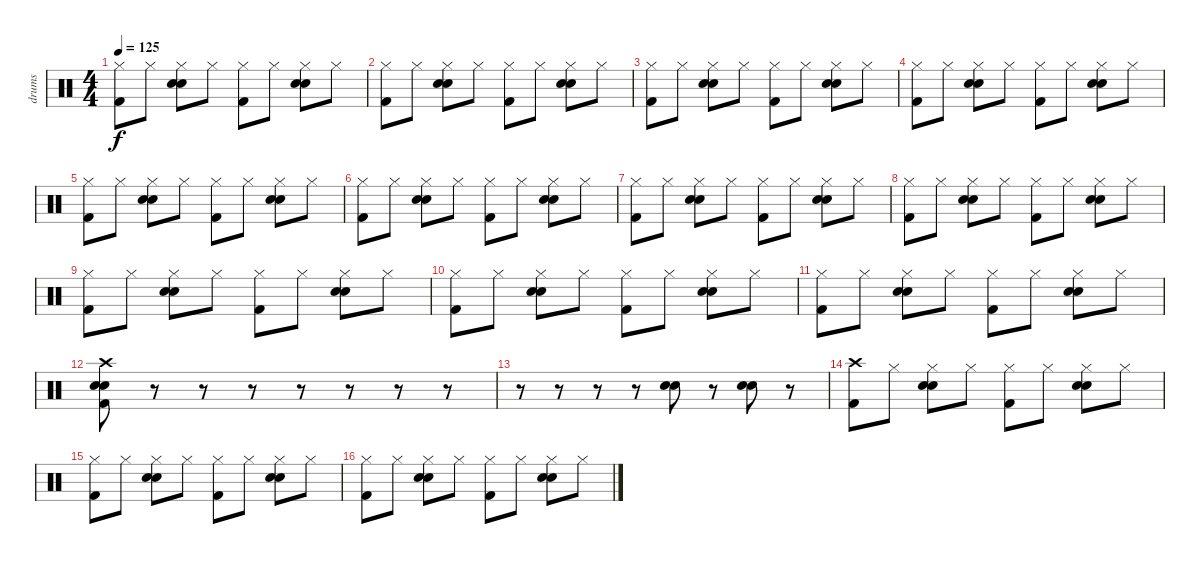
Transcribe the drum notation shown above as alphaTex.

\track ("drums" "drums") {instrument percussion}
\staff {score}
\articulation defaults
\ts (4 4)
\tempo 125
\clef neutral
\ks c
("Hi-Hat (closed)" "Kick (hit) 2").8{dy f} "Hi-Hat (closed)".8 ("Hi-Hat (closed)" "Snare (hit) 2" "Electric Snare (hit)").8 "Hi-Hat (closed)".8 ("Hi-Hat (closed)" "Kick (hit) 2").8 "Hi-Hat (closed)".8 ("Hi-Hat (closed)" "Snare (hit) 2" "Electric Snare (hit)").8 "Hi-Hat (closed)".8 |
("Hi-Hat (closed)" "Kick (hit) 2").8 "Hi-Hat (closed)".8 ("Hi-Hat (closed)" "Snare (hit) 2" "Electric Snare (hit)").8 "Hi-Hat (closed)".8 ("Hi-Hat (closed)" "Kick (hit) 2").8 "Hi-Hat (closed)".8 ("Hi-Hat (closed)" "Snare (hit) 2" "Electric Snare (hit)").8 "Hi-Hat (closed)".8 |
("Hi-Hat (closed)" "Kick (hit) 2").8 "Hi-Hat (closed)".8 ("Hi-Hat (closed)" "Snare (hit) 2" "Electric Snare (hit)").8 "Hi-Hat (closed)".8 ("Hi-Hat (closed)" "Kick (hit) 2").8 "Hi-Hat (closed)".8 ("Hi-Hat (closed)" "Snare (hit) 2" "Electric Snare (hit)").8 "Hi-Hat (closed)".8 |
("Hi-Hat (closed)" "Kick (hit) 2").8 "Hi-Hat (closed)".8 ("Hi-Hat (closed)" "Snare (hit) 2" "Electric Snare (hit)").8 "Hi-Hat (closed)".8 ("Hi-Hat (closed)" "Kick (hit) 2").8 "Hi-Hat (closed)".8 ("Hi-Hat (closed)" "Snare (hit) 2" "Electric Snare (hit)").8 "Hi-Hat (closed)".8 |
("Hi-Hat (closed)" "Kick (hit) 2").8 "Hi-Hat (closed)".8 ("Hi-Hat (closed)" "Snare (hit) 2" "Electric Snare (hit)").8 "Hi-Hat (closed)".8 ("Hi-Hat (closed)" "Kick (hit) 2").8 "Hi-Hat (closed)".8 ("Hi-Hat (closed)" "Snare (hit) 2" "Electric Snare (hit)").8 "Hi-Hat (closed)".8 |
("Hi-Hat (closed)" "Kick (hit) 2").8 "Hi-Hat (closed)".8 ("Hi-Hat (closed)" "Snare (hit) 2" "Electric Snare (hit)").8 "Hi-Hat (closed)".8 ("Hi-Hat (closed)" "Kick (hit) 2").8 "Hi-Hat (closed)".8 ("Hi-Hat (closed)" "Snare (hit) 2" "Electric Snare (hit)").8 "Hi-Hat (closed)".8 |
("Hi-Hat (closed)" "Kick (hit) 2").8 "Hi-Hat (closed)".8 ("Hi-Hat (closed)" "Snare (hit) 2" "Electric Snare (hit)").8 "Hi-Hat (closed)".8 ("Hi-Hat (closed)" "Kick (hit) 2").8 "Hi-Hat (closed)".8 ("Hi-Hat (closed)" "Snare (hit) 2" "Electric Snare (hit)").8 "Hi-Hat (closed)".8 |
("Hi-Hat (closed)" "Kick (hit) 2").8 "Hi-Hat (closed)".8 ("Hi-Hat (closed)" "Snare (hit) 2" "Electric Snare (hit)").8 "Hi-Hat (closed)".8 ("Hi-Hat (closed)" "Kick (hit) 2").8 "Hi-Hat (closed)".8 ("Hi-Hat (closed)" "Snare (hit) 2" "Electric Snare (hit)").8 "Hi-Hat (closed)".8 |
("Hi-Hat (closed)" "Kick (hit) 2").8 "Hi-Hat (closed)".8 ("Hi-Hat (closed)" "Snare (hit) 2" "Electric Snare (hit)").8 "Hi-Hat (closed)".8 ("Hi-Hat (closed)" "Kick (hit) 2").8 "Hi-Hat (closed)".8 ("Hi-Hat (closed)" "Snare (hit) 2" "Electric Snare (hit)").8 "Hi-Hat (closed)".8 |
("Hi-Hat (closed)" "Kick (hit) 2").8 "Hi-Hat (closed)".8 ("Hi-Hat (closed)" "Snare (hit) 2" "Electric Snare (hit)").8 "Hi-Hat (closed)".8 ("Hi-Hat (closed)" "Kick (hit) 2").8 "Hi-Hat (closed)".8 ("Hi-Hat (closed)" "Snare (hit) 2" "Electric Snare (hit)").8 "Hi-Hat (closed)".8 |
("Hi-Hat (closed)" "Kick (hit) 2").8 "Hi-Hat (closed)".8 ("Hi-Hat (closed)" "Snare (hit) 2" "Electric Snare (hit)").8 "Hi-Hat (closed)".8 ("Hi-Hat (closed)" "Kick (hit) 2").8 "Hi-Hat (closed)".8 ("Hi-Hat (closed)" "Snare (hit) 2" "Electric Snare (hit)").8 "Hi-Hat (closed)".8 |
("Crash high (hit)" "Snare (hit) 2" "Kick (hit) 2" "Electric Snare (hit)").8 r.8 r.8 r.8 r.8 r.8 r.8 r.8 |
r.8 r.8 r.8 r.8 ("Snare (hit) 2" "Electric Snare (hit)").8 r.8 ("Snare (hit) 2" "Electric Snare (hit)").8 r.8 |
("Crash high (hit)" "Kick (hit) 2").8 "Hi-Hat (closed)".8 ("Hi-Hat (closed)" "Snare (hit) 2" "Electric Snare (hit)").8 "Hi-Hat (closed)".8 ("Hi-Hat (closed)" "Kick (hit) 2").8 "Hi-Hat (closed)".8 ("Hi-Hat (closed)" "Snare (hit) 2" "Electric Snare (hit)").8 "Hi-Hat (closed)".8 |
("Hi-Hat (closed)" "Kick (hit) 2").8 "Hi-Hat (closed)".8 ("Hi-Hat (closed)" "Snare (hit) 2" "Electric Snare (hit)").8 "Hi-Hat (closed)".8 ("Hi-Hat (closed)" "Kick (hit) 2").8 "Hi-Hat (closed)".8 ("Hi-Hat (closed)" "Snare (hit) 2" "Electric Snare (hit)").8 "Hi-Hat (closed)".8 |
("Hi-Hat (closed)" "Kick (hit) 2").8 "Hi-Hat (closed)".8 ("Hi-Hat (closed)" "Snare (hit) 2" "Electric Snare (hit)").8 "Hi-Hat (closed)".8 ("Hi-Hat (closed)" "Kick (hit) 2").8 "Hi-Hat (closed)".8 ("Hi-Hat (closed)" "Snare (hit) 2" "Electric Snare (hit)").8 "Hi-Hat (closed)".8
